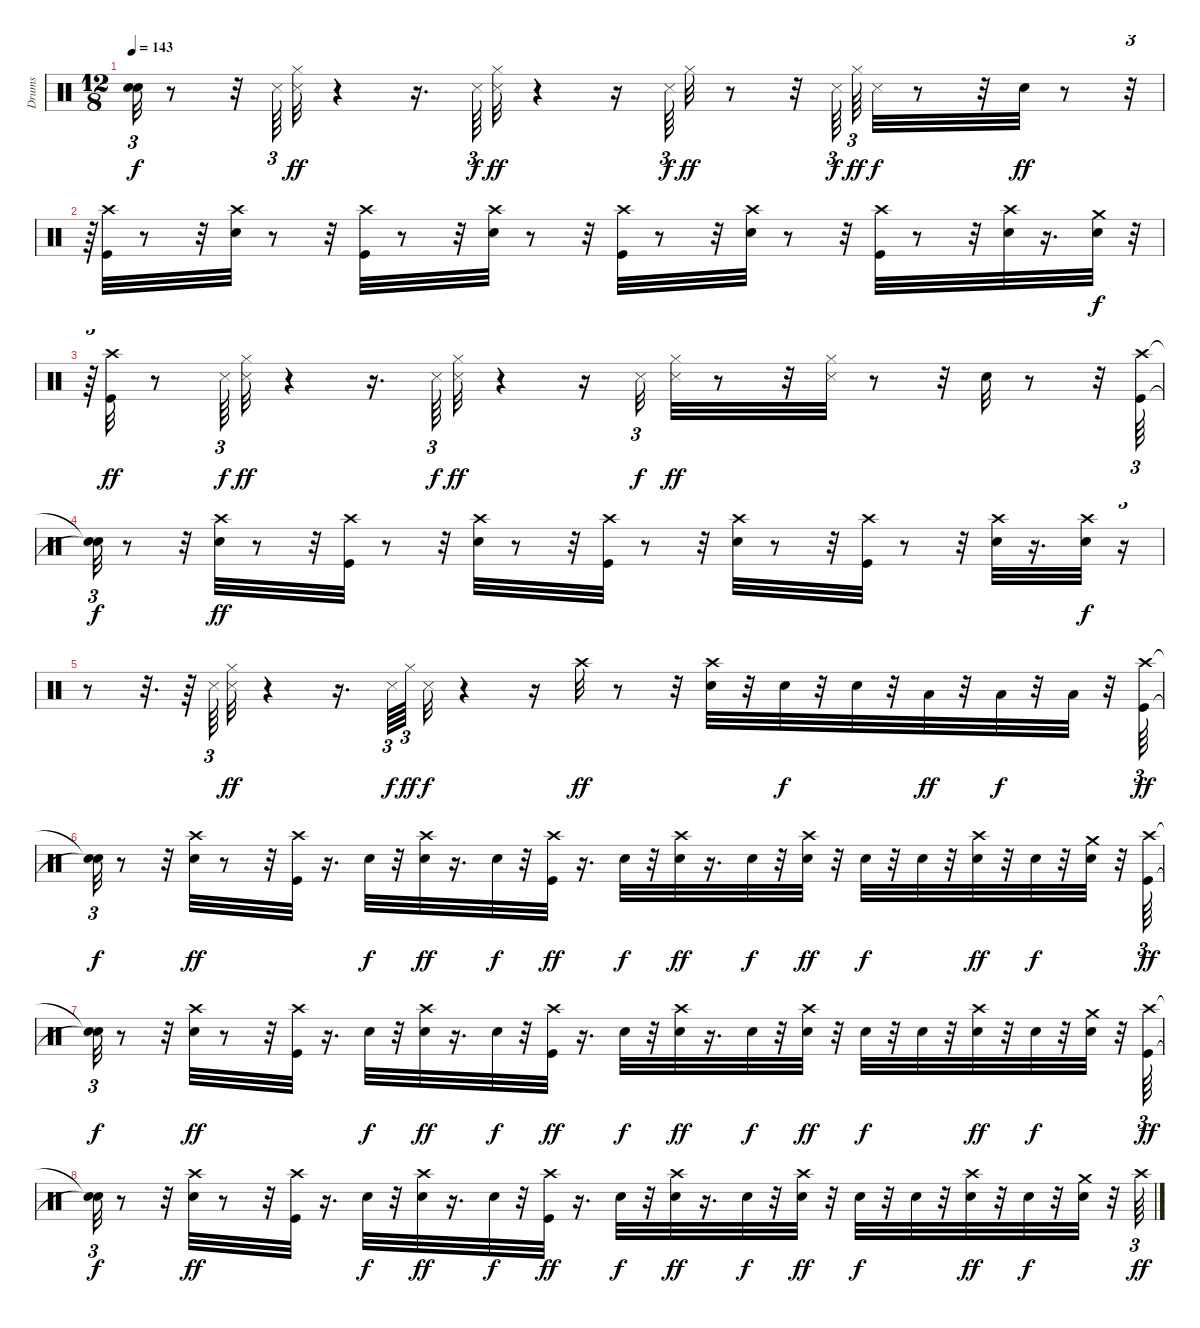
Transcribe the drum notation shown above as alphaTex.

\track ("Drums" "Drums") {instrument percussion}
\staff {score}
\articulation defaults
\ts (12 8)
\tempo 143
\clef neutral
\ks c
("Snare (hit)"{t} "Snare (hit)"{t}).32{tu (3 2) dy f} r.8 r.32 "Metronome (hit)".64{tu (3 2)} ("Metronome (hit)" "Hi-Hat (closed)").32{dy ff} r.4 r.16{d} "Metronome (hit)".64{tu (3 2) dy f} ("Metronome (hit)" "Hi-Hat (closed)").32{dy ff} r.4 r.16 "Metronome (hit)".64{tu (3 2) dy f} "Hi-Hat (closed)".32{dy ff} r.8 r.32 "Metronome (hit)".64{tu (3 2) dy f} "Hi-Hat (closed)".64{tu (3 2) dy ff} "Metronome (hit)".32{dy f} r.8 r.32 "Snare (hit) 2".32{dy ff} r.8 r.32{tu (3 2)} |
r.64{tu (3 2)} ("Crash high (hit)" "Kick (hit)").32 r.8 r.32 ("Crash high (hit)" "Snare (hit) 2").32 r.8 r.32 ("Crash high (hit)" "Kick (hit)").32 r.8 r.32 ("Crash high (hit)" "Snare (hit) 2").32 r.8 r.32 ("Crash high (hit)" "Kick (hit)").32 r.8 r.32 ("Crash high (hit)" "Snare (hit) 2").32 r.8 r.32 ("Crash high (hit)" "Kick (hit)").32 r.8 r.32 ("Crash high (hit)" "Snare (hit) 2").32 r.16{d} ("Crash medium (hit)" "Snare (hit) 2").32{dy f} r.32{tu (3 2)} |
r.64{tu (3 2)} ("Kick (hit)" "Crash high (hit)").32{dy ff} r.8 "Metronome (hit)".64{tu (3 2) dy f} ("Metronome (hit)" "Hi-Hat (closed)").32{dy ff} r.4 r.16{d} "Metronome (hit)".64{tu (3 2) dy f} ("Metronome (hit)" "Hi-Hat (closed)").32{dy ff} r.4 r.16 "Metronome (hit)".32{tu (3 2) dy f} ("Metronome (hit)" "Hi-Hat (closed)").32{dy ff} r.8 r.32 ("Metronome (hit)" "Hi-Hat (closed)").32 r.8 r.32 "Snare (hit) 2".32 r.8 r.32 ("Crash high (hit)" "Kick (hit)").64{tu (3 2)} |
("Snare (hit)"{t} "Snare (hit)"{t}).32{tu (3 2) dy f} r.8 r.32 ("Crash high (hit)" "Snare (hit) 2").32{dy ff} r.8 r.32 ("Crash high (hit)" "Kick (hit)").32 r.8 r.32 ("Crash high (hit)" "Snare (hit) 2").32 r.8 r.32 ("Crash high (hit)" "Kick (hit)").32 r.8 r.32 ("Crash high (hit)" "Snare (hit) 2").32 r.8 r.32 ("Crash high (hit)" "Kick (hit)").32 r.8 r.32 ("Crash high (hit)" "Snare (hit) 2").32 r.16{d} ("Snare (hit) 2" "Crash high (hit)").32{dy f} r.16{tu (3 2)} |
r.8 r.32{d} r.64 "Metronome (hit)".64{tu (3 2)} ("Metronome (hit)" "Hi-Hat (closed)").32{dy ff} r.4 r.16{d} "Metronome (hit)".64{tu (3 2) dy f} "Hi-Hat (closed)".64{tu (3 2) dy ff} "Metronome (hit)".32{dy f} r.4 r.16 "Crash high (hit)".32{dy ff} r.8 r.32 ("Snare (hit) 2" "Crash high (hit)").32 r.32 "Snare (hit) 2".32{dy f} r.32 "Snare (hit) 2".32 r.32 "Low Tom (hit)".32{dy ff} r.32 "Low Tom (hit)".32{dy f} r.32 "Low Tom (hit)".32 r.32 ("Crash high (hit)" "Kick (hit)").64{tu (3 2) dy ff} |
("Snare (hit)"{t} "Snare (hit)"{t}).32{tu (3 2) dy f} r.8 r.32 ("Crash high (hit)" "Snare (hit) 2").32{dy ff} r.8 r.32 ("Crash high (hit)" "Kick (hit)").32 r.16{d} "Snare (hit) 2".32{dy f} r.32 ("Crash high (hit)" "Snare (hit) 2").32{dy ff} r.16{d} "Snare (hit) 2".32{dy f} r.32 ("Crash high (hit)" "Kick (hit)").32{dy ff} r.16{d} "Snare (hit) 2".32{dy f} r.32 ("Crash high (hit)" "Snare (hit) 2").32{dy ff} r.16{d} "Snare (hit) 2".32{dy f} r.32 ("Snare (hit) 2" "Crash high (hit)").32{dy ff} r.32 "Snare (hit) 2".32{dy f} r.32 "Snare (hit) 2".32 r.32 ("Crash high (hit)" "Snare (hit) 2").32{dy ff} r.32 "Snare (hit) 2".32{dy f} r.32 ("Crash medium (hit)" "Snare (hit) 2").32 r.32 ("Crash high (hit)" "Kick (hit)").64{tu (3 2) dy ff} |
("Snare (hit)"{t} "Snare (hit)"{t}).32{tu (3 2) dy f} r.8 r.32 ("Crash high (hit)" "Snare (hit) 2").32{dy ff} r.8 r.32 ("Crash high (hit)" "Kick (hit)").32 r.16{d} "Snare (hit) 2".32{dy f} r.32 ("Crash high (hit)" "Snare (hit) 2").32{dy ff} r.16{d} "Snare (hit) 2".32{dy f} r.32 ("Crash high (hit)" "Kick (hit)").32{dy ff} r.16{d} "Snare (hit) 2".32{dy f} r.32 ("Crash high (hit)" "Snare (hit) 2").32{dy ff} r.16{d} "Snare (hit) 2".32{dy f} r.32 ("Snare (hit) 2" "Crash high (hit)").32{dy ff} r.32 "Snare (hit) 2".32{dy f} r.32 "Snare (hit) 2".32 r.32 ("Crash high (hit)" "Snare (hit) 2").32{dy ff} r.32 "Snare (hit) 2".32{dy f} r.32 ("Crash medium (hit)" "Snare (hit) 2").32 r.32 ("Crash high (hit)" "Kick (hit)").64{tu (3 2) dy ff} |
("Snare (hit)"{t} "Snare (hit)"{t}).32{tu (3 2) dy f} r.8 r.32 ("Crash high (hit)" "Snare (hit) 2").32{dy ff} r.8 r.32 ("Crash high (hit)" "Kick (hit)").32 r.16{d} "Snare (hit) 2".32{dy f} r.32 ("Crash high (hit)" "Snare (hit) 2").32{dy ff} r.16{d} "Snare (hit) 2".32{dy f} r.32 ("Crash high (hit)" "Kick (hit)").32{dy ff} r.16{d} "Snare (hit) 2".32{dy f} r.32 ("Crash high (hit)" "Snare (hit) 2").32{dy ff} r.16{d} "Snare (hit) 2".32{dy f} r.32 ("Snare (hit) 2" "Crash high (hit)").32{dy ff} r.32 "Snare (hit) 2".32{dy f} r.32 "Snare (hit) 2".32 r.32 ("Crash high (hit)" "Snare (hit) 2").32{dy ff} r.32 "Snare (hit) 2".32{dy f} r.32 ("Crash medium (hit)" "Snare (hit) 2").32 r.32 "Crash high (hit)".64{tu (3 2) dy ff}
